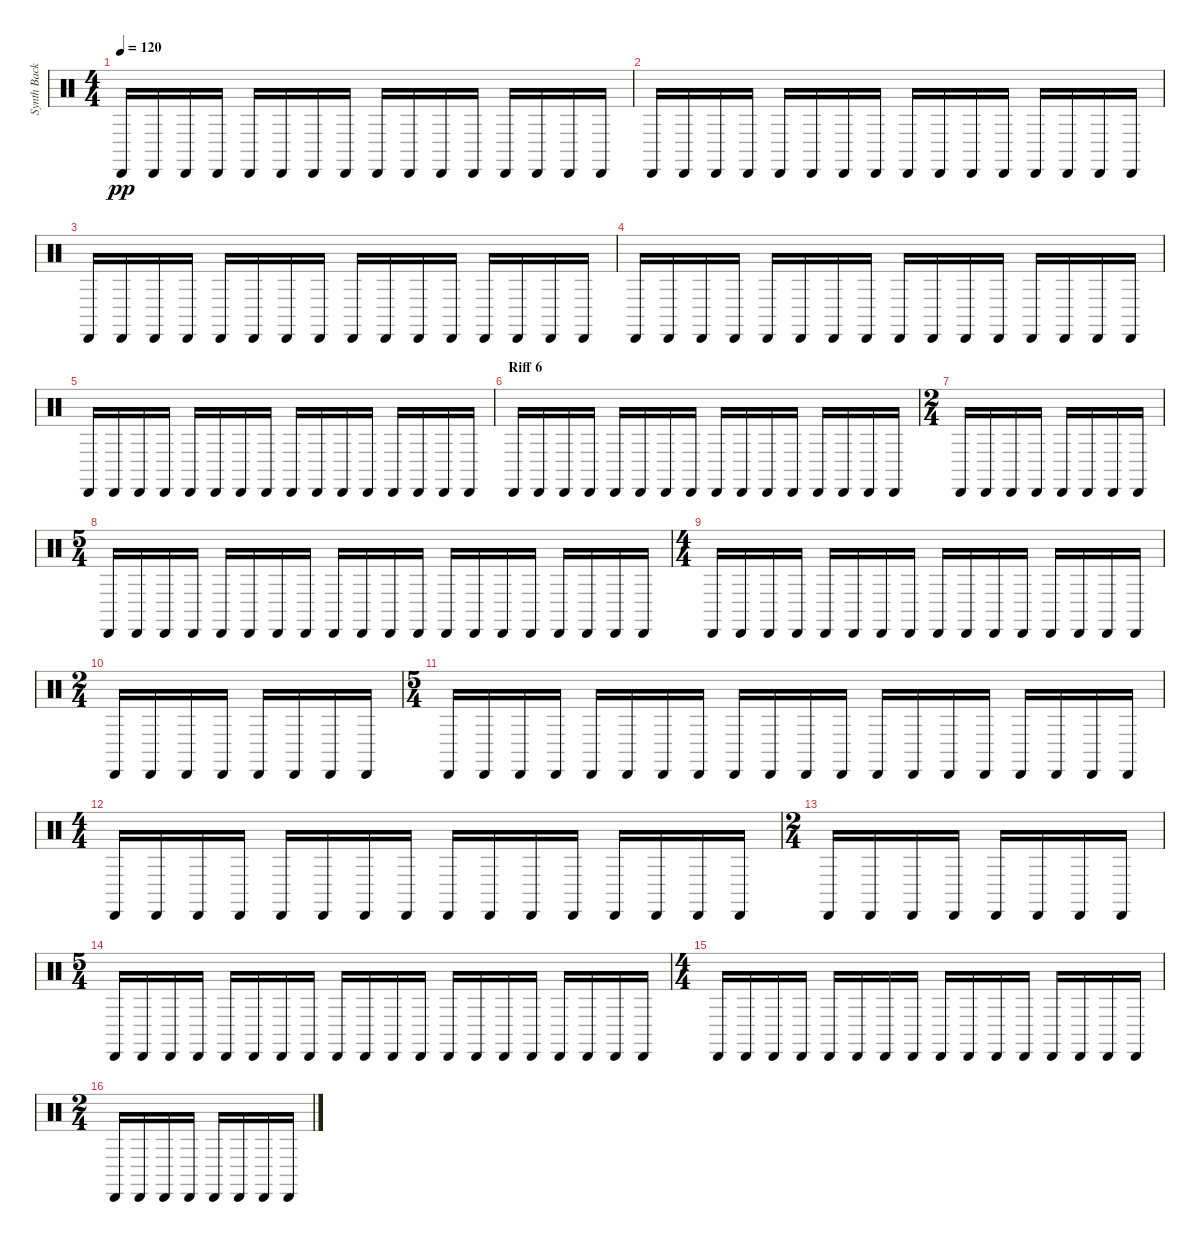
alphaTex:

\track ("Synth Background Rhythm" "Synth Back") {instrument percussion}
\staff {score}
\articulation defaults
\ts (4 4)
\tempo 120
\clef neutral
\ks c "Cabasa (hit)".16{dy pp} "Cabasa (hit)".16 "Cabasa (hit)".16 "Cabasa (hit)".16 "Cabasa (hit)".16 "Cabasa (hit)".16 "Cabasa (hit)".16 "Cabasa (hit)".16 "Cabasa (hit)".16 "Cabasa (hit)".16 "Cabasa (hit)".16 "Cabasa (hit)".16 "Cabasa (hit)".16 "Cabasa (hit)".16 "Cabasa (hit)".16 "Cabasa (hit)".16
|
"Cabasa (hit)".16 "Cabasa (hit)".16 "Cabasa (hit)".16 "Cabasa (hit)".16 "Cabasa (hit)".16 "Cabasa (hit)".16 "Cabasa (hit)".16 "Cabasa (hit)".16 "Cabasa (hit)".16 "Cabasa (hit)".16 "Cabasa (hit)".16 "Cabasa (hit)".16 "Cabasa (hit)".16 "Cabasa (hit)".16 "Cabasa (hit)".16 "Cabasa (hit)".16 |
"Cabasa (hit)".16 "Cabasa (hit)".16 "Cabasa (hit)".16 "Cabasa (hit)".16 "Cabasa (hit)".16 "Cabasa (hit)".16 "Cabasa (hit)".16 "Cabasa (hit)".16 "Cabasa (hit)".16 "Cabasa (hit)".16 "Cabasa (hit)".16 "Cabasa (hit)".16 "Cabasa (hit)".16 "Cabasa (hit)".16 "Cabasa (hit)".16 "Cabasa (hit)".16 |
"Cabasa (hit)".16 "Cabasa (hit)".16 "Cabasa (hit)".16 "Cabasa (hit)".16 "Cabasa (hit)".16 "Cabasa (hit)".16 "Cabasa (hit)".16 "Cabasa (hit)".16 "Cabasa (hit)".16 "Cabasa (hit)".16 "Cabasa (hit)".16 "Cabasa (hit)".16 "Cabasa (hit)".16 "Cabasa (hit)".16 "Cabasa (hit)".16 "Cabasa (hit)".16 |
"Cabasa (hit)".16 "Cabasa (hit)".16 "Cabasa (hit)".16 "Cabasa (hit)".16 "Cabasa (hit)".16 "Cabasa (hit)".16 "Cabasa (hit)".16 "Cabasa (hit)".16 "Cabasa (hit)".16 "Cabasa (hit)".16 "Cabasa (hit)".16 "Cabasa (hit)".16 "Cabasa (hit)".16 "Cabasa (hit)".16 "Cabasa (hit)".16 "Cabasa (hit)".16 |
\section ("" "Riff 6")
"Cabasa (hit)".16 "Cabasa (hit)".16 "Cabasa (hit)".16 "Cabasa (hit)".16 "Cabasa (hit)".16 "Cabasa (hit)".16 "Cabasa (hit)".16 "Cabasa (hit)".16 "Cabasa (hit)".16 "Cabasa (hit)".16 "Cabasa (hit)".16 "Cabasa (hit)".16 "Cabasa (hit)".16 "Cabasa (hit)".16 "Cabasa (hit)".16 "Cabasa (hit)".16 |
\ts (2 4)
"Cabasa (hit)".16 "Cabasa (hit)".16 "Cabasa (hit)".16 "Cabasa (hit)".16 "Cabasa (hit)".16 "Cabasa (hit)".16 "Cabasa (hit)".16 "Cabasa (hit)".16 |
\ts (5 4)
"Cabasa (hit)".16 "Cabasa (hit)".16 "Cabasa (hit)".16 "Cabasa (hit)".16 "Cabasa (hit)".16 "Cabasa (hit)".16 "Cabasa (hit)".16 "Cabasa (hit)".16 "Cabasa (hit)".16 "Cabasa (hit)".16 "Cabasa (hit)".16 "Cabasa (hit)".16 "Cabasa (hit)".16 "Cabasa (hit)".16 "Cabasa (hit)".16 "Cabasa (hit)".16 "Cabasa (hit)".16 "Cabasa (hit)".16 "Cabasa (hit)".16 "Cabasa (hit)".16 |
\ts (4 4)
"Cabasa (hit)".16 "Cabasa (hit)".16 "Cabasa (hit)".16 "Cabasa (hit)".16 "Cabasa (hit)".16 "Cabasa (hit)".16 "Cabasa (hit)".16 "Cabasa (hit)".16 "Cabasa (hit)".16 "Cabasa (hit)".16 "Cabasa (hit)".16 "Cabasa (hit)".16 "Cabasa (hit)".16 "Cabasa (hit)".16 "Cabasa (hit)".16 "Cabasa (hit)".16 |
\ts (2 4)
"Cabasa (hit)".16 "Cabasa (hit)".16 "Cabasa (hit)".16 "Cabasa (hit)".16 "Cabasa (hit)".16 "Cabasa (hit)".16 "Cabasa (hit)".16 "Cabasa (hit)".16 |
\ts (5 4)
"Cabasa (hit)".16 "Cabasa (hit)".16 "Cabasa (hit)".16 "Cabasa (hit)".16 "Cabasa (hit)".16 "Cabasa (hit)".16 "Cabasa (hit)".16 "Cabasa (hit)".16 "Cabasa (hit)".16 "Cabasa (hit)".16 "Cabasa (hit)".16 "Cabasa (hit)".16 "Cabasa (hit)".16 "Cabasa (hit)".16 "Cabasa (hit)".16 "Cabasa (hit)".16 "Cabasa (hit)".16 "Cabasa (hit)".16 "Cabasa (hit)".16 "Cabasa (hit)".16 |
\ts (4 4)
"Cabasa (hit)".16 "Cabasa (hit)".16 "Cabasa (hit)".16 "Cabasa (hit)".16 "Cabasa (hit)".16 "Cabasa (hit)".16 "Cabasa (hit)".16 "Cabasa (hit)".16 "Cabasa (hit)".16 "Cabasa (hit)".16 "Cabasa (hit)".16 "Cabasa (hit)".16 "Cabasa (hit)".16 "Cabasa (hit)".16 "Cabasa (hit)".16 "Cabasa (hit)".16 |
\ts (2 4)
"Cabasa (hit)".16 "Cabasa (hit)".16 "Cabasa (hit)".16 "Cabasa (hit)".16 "Cabasa (hit)".16 "Cabasa (hit)".16 "Cabasa (hit)".16 "Cabasa (hit)".16 |
\ts (5 4)
"Cabasa (hit)".16 "Cabasa (hit)".16 "Cabasa (hit)".16 "Cabasa (hit)".16 "Cabasa (hit)".16 "Cabasa (hit)".16 "Cabasa (hit)".16 "Cabasa (hit)".16 "Cabasa (hit)".16 "Cabasa (hit)".16 "Cabasa (hit)".16 "Cabasa (hit)".16 "Cabasa (hit)".16 "Cabasa (hit)".16 "Cabasa (hit)".16 "Cabasa (hit)".16 "Cabasa (hit)".16 "Cabasa (hit)".16 "Cabasa (hit)".16 "Cabasa (hit)".16 |
\ts (4 4)
"Cabasa (hit)".16 "Cabasa (hit)".16 "Cabasa (hit)".16 "Cabasa (hit)".16 "Cabasa (hit)".16 "Cabasa (hit)".16 "Cabasa (hit)".16 "Cabasa (hit)".16 "Cabasa (hit)".16 "Cabasa (hit)".16 "Cabasa (hit)".16 "Cabasa (hit)".16 "Cabasa (hit)".16 "Cabasa (hit)".16 "Cabasa (hit)".16 "Cabasa (hit)".16 |
\ts (2 4)
"Cabasa (hit)".16 "Cabasa (hit)".16 "Cabasa (hit)".16 "Cabasa (hit)".16 "Cabasa (hit)".16 "Cabasa (hit)".16 "Cabasa (hit)".16 "Cabasa (hit)".16
